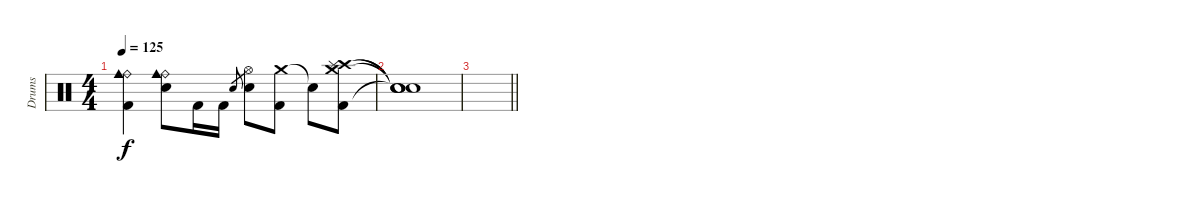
\track ("Drums" "Drums") {instrument percussion}
\staff {score}
\articulation defaults
\ts (4 4)
\tempo 125
\clef neutral
\ks c
("Ride (bell)" "Cowbell medium (hit)" "Kick (hit) 2").4{dy f} ("Ride (bell)" "Cowbell medium (hit)" "Electric Snare (hit)").8 "Kick (hit) 2".16 "Kick (hit) 2".16 "Electric Snare (hit)".8{gr} ("Hi-Hat (open)" "Electric Snare (hit)").8 ("Crash medium (hit)" "Kick (hit) 2").8 "Snare (hit)"{t}.8{volume 0} ("Crash high (hit)" "Crash medium (hit)" "Splash (hit)" "Kick (hit) 2").8{volume 16} |
("Snare (hit)"{t} "Snare (hit)"{t} "Snare (hit)"{t} "Snare (hit)"{t}).1 |
\barLineRight lightlight
